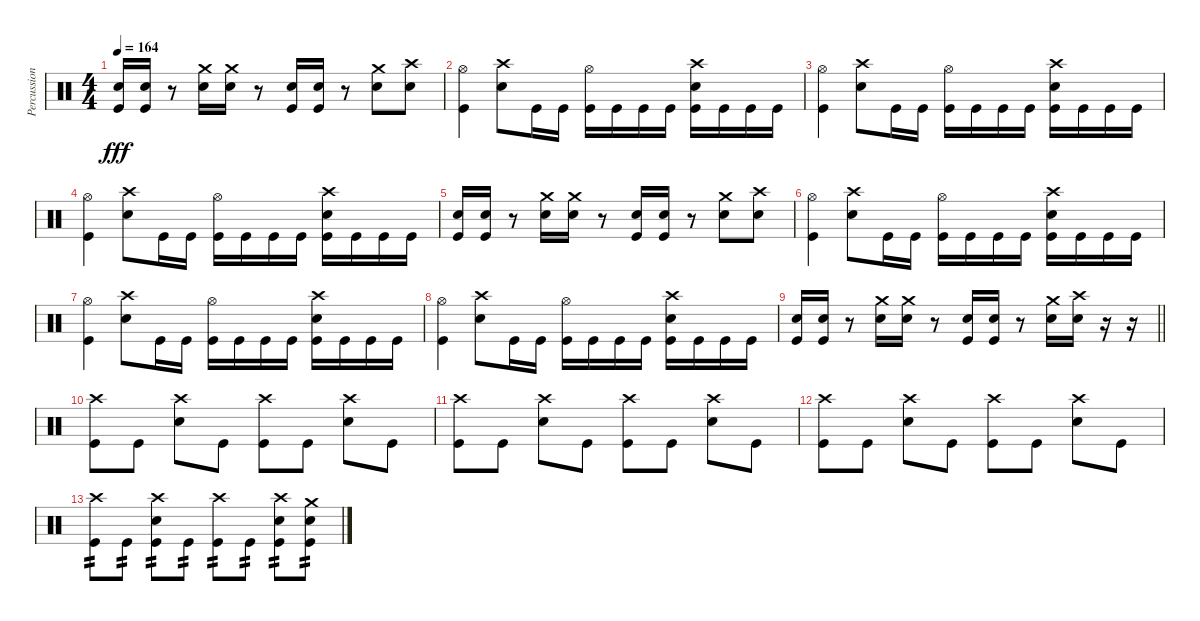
\track ("Percussion" "Percussion") {instrument percussion}
\staff {score}
\articulation defaults
\ts (4 4)
\tempo 164
\clef neutral
\ks c
("Electric Snare (hit)" "Kick (hit)").16{dy fff} ("Electric Snare (hit)" "Kick (hit)").16 r.8 ("Crash medium (hit)" "Electric Snare (hit)").16 ("Crash medium (hit)" "Electric Snare (hit)").16 r.8 ("Electric Snare (hit)" "Kick (hit)").16 ("Electric Snare (hit)" "Kick (hit)").16 r.8 ("Crash medium (hit)" "Electric Snare (hit)").8 ("Crash high (hit)" "Electric Snare (hit)").8 |
("Hi-Hat (open)" "Kick (hit)").4 ("Crash high (hit)" "Electric Snare (hit)").8 "Kick (hit)".16 "Kick (hit)".16 ("Hi-Hat (open)" "Kick (hit)").16 "Kick (hit)".16 "Kick (hit)".16 "Kick (hit)".16 ("Crash high (hit)" "Electric Snare (hit)" "Kick (hit)").16 "Kick (hit)".16 "Kick (hit)".16 "Kick (hit)".16 |
("Hi-Hat (open)" "Kick (hit)").4 ("Crash high (hit)" "Electric Snare (hit)").8 "Kick (hit)".16 "Kick (hit)".16 ("Hi-Hat (open)" "Kick (hit)").16 "Kick (hit)".16 "Kick (hit)".16 "Kick (hit)".16 ("Crash high (hit)" "Electric Snare (hit)" "Kick (hit)").16 "Kick (hit)".16 "Kick (hit)".16 "Kick (hit)".16 |
("Hi-Hat (open)" "Kick (hit)").4 ("Crash high (hit)" "Electric Snare (hit)").8 "Kick (hit)".16 "Kick (hit)".16 ("Hi-Hat (open)" "Kick (hit)").16 "Kick (hit)".16 "Kick (hit)".16 "Kick (hit)".16 ("Crash high (hit)" "Electric Snare (hit)" "Kick (hit)").16 "Kick (hit)".16 "Kick (hit)".16 "Kick (hit)".16 |
("Electric Snare (hit)" "Kick (hit)").16 ("Electric Snare (hit)" "Kick (hit)").16 r.8 ("Crash medium (hit)" "Electric Snare (hit)").16 ("Crash medium (hit)" "Electric Snare (hit)").16 r.8 ("Electric Snare (hit)" "Kick (hit)").16 ("Electric Snare (hit)" "Kick (hit)").16 r.8 ("Crash medium (hit)" "Electric Snare (hit)").8 ("Crash high (hit)" "Electric Snare (hit)").8 |
("Hi-Hat (open)" "Kick (hit)").4 ("Crash high (hit)" "Electric Snare (hit)").8 "Kick (hit)".16 "Kick (hit)".16 ("Hi-Hat (open)" "Kick (hit)").16 "Kick (hit)".16 "Kick (hit)".16 "Kick (hit)".16 ("Crash high (hit)" "Electric Snare (hit)" "Kick (hit)").16 "Kick (hit)".16 "Kick (hit)".16 "Kick (hit)".16 |
("Hi-Hat (open)" "Kick (hit)").4 ("Crash high (hit)" "Electric Snare (hit)").8 "Kick (hit)".16 "Kick (hit)".16 ("Hi-Hat (open)" "Kick (hit)").16 "Kick (hit)".16 "Kick (hit)".16 "Kick (hit)".16 ("Crash high (hit)" "Electric Snare (hit)" "Kick (hit)").16 "Kick (hit)".16 "Kick (hit)".16 "Kick (hit)".16 |
("Hi-Hat (open)" "Kick (hit)").4 ("Crash high (hit)" "Electric Snare (hit)").8 "Kick (hit)".16 "Kick (hit)".16 ("Hi-Hat (open)" "Kick (hit)").16 "Kick (hit)".16 "Kick (hit)".16 "Kick (hit)".16 ("Crash high (hit)" "Electric Snare (hit)" "Kick (hit)").16 "Kick (hit)".16 "Kick (hit)".16 "Kick (hit)".16 |
\barLineRight lightlight
("Electric Snare (hit)" "Kick (hit)").16 ("Electric Snare (hit)" "Kick (hit)").16 r.8 ("Crash medium (hit)" "Electric Snare (hit)").16 ("Crash medium (hit)" "Electric Snare (hit)").16 r.8 ("Electric Snare (hit)" "Kick (hit)").16 ("Electric Snare (hit)" "Kick (hit)").16 r.8 ("Crash medium (hit)" "Electric Snare (hit)").16 ("Crash high (hit)" "Electric Snare (hit)").16 r.16 r.16 |
("Crash high (hit)" "Kick (hit)").8 "Kick (hit)".8 ("Crash high (hit)" "Electric Snare (hit)").8 "Kick (hit)".8 ("Crash high (hit)" "Kick (hit)").8 "Kick (hit)".8 ("Crash high (hit)" "Electric Snare (hit)").8 "Kick (hit)".8 |
("Crash high (hit)" "Kick (hit)").8 "Kick (hit)".8 ("Crash high (hit)" "Electric Snare (hit)").8 "Kick (hit)".8 ("Crash high (hit)" "Kick (hit)").8 "Kick (hit)".8 ("Crash high (hit)" "Electric Snare (hit)").8 "Kick (hit)".8 |
("Crash high (hit)" "Kick (hit)").8 "Kick (hit)".8 ("Crash high (hit)" "Electric Snare (hit)").8 "Kick (hit)".8 ("Crash high (hit)" "Kick (hit)").8 "Kick (hit)".8 ("Crash high (hit)" "Electric Snare (hit)").8 "Kick (hit)".8 |
("Crash high (hit)" "Kick (hit)").8{tp 2} "Kick (hit)".8{tp 2} ("Crash high (hit)" "Electric Snare (hit)" "Kick (hit)").8{tp 2} "Kick (hit)".8{tp 2} ("Crash high (hit)" "Kick (hit)").8{tp 2} "Kick (hit)".8{tp 2} ("Crash high (hit)" "Electric Snare (hit)" "Kick (hit)").8{tp 2} ("Crash medium (hit)" "Electric Snare (hit)" "Kick (hit)").8{tp 2}
